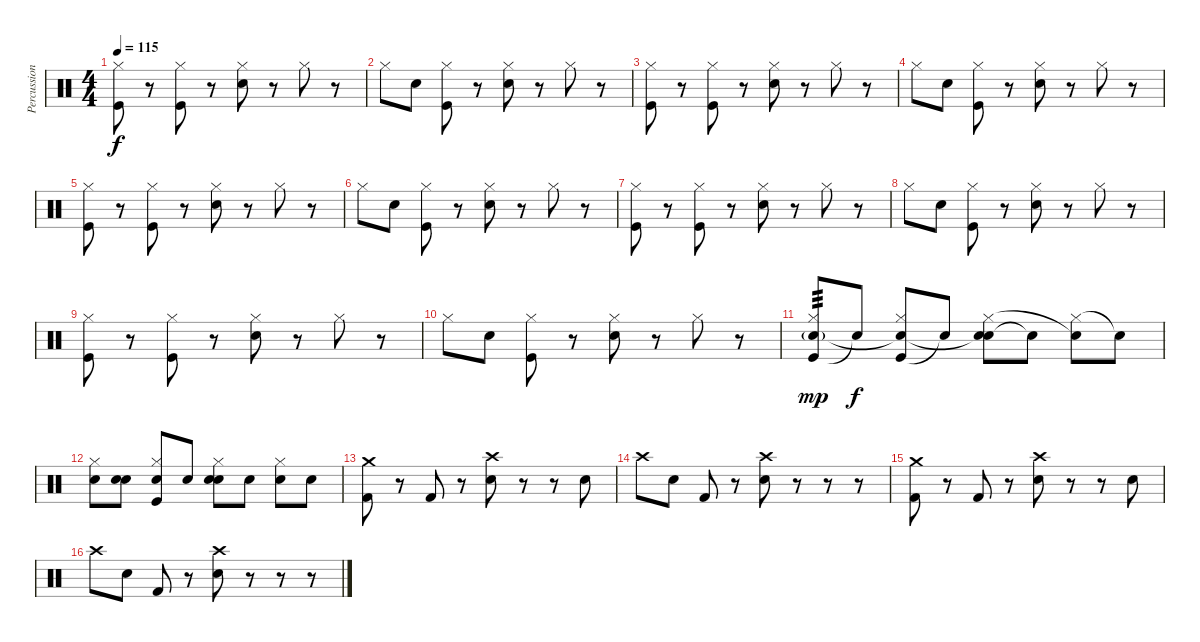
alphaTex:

\track ("Percussion" "Percussion") {instrument percussion}
\staff {score}
\articulation defaults
\ts (4 4)
\tempo 115
\clef neutral
\ks c
("Kick (hit)" "Hi-Hat (closed)").8{dy f} r.8 ("Kick (hit)" "Hi-Hat (closed)").8 r.8 ("Snare (hit) 2" "Hi-Hat (closed)").8 r.8 "Hi-Hat (closed)".8 r.8 |
"Hi-Hat (closed)".8 "Snare (hit) 2".8 ("Kick (hit)" "Hi-Hat (closed)").8 r.8 ("Snare (hit) 2" "Hi-Hat (closed)").8 r.8 "Hi-Hat (closed)".8 r.8 |
("Kick (hit)" "Hi-Hat (closed)").8 r.8 ("Kick (hit)" "Hi-Hat (closed)").8 r.8 ("Snare (hit) 2" "Hi-Hat (closed)").8 r.8 "Hi-Hat (closed)".8 r.8 |
"Hi-Hat (closed)".8 "Snare (hit) 2".8 ("Kick (hit)" "Hi-Hat (closed)").8 r.8 ("Snare (hit) 2" "Hi-Hat (closed)").8 r.8 "Hi-Hat (closed)".8 r.8 |
("Kick (hit)" "Hi-Hat (closed)").8 r.8 ("Kick (hit)" "Hi-Hat (closed)").8 r.8 ("Snare (hit) 2" "Hi-Hat (closed)").8 r.8 "Hi-Hat (closed)".8 r.8 |
"Hi-Hat (closed)".8 "Snare (hit) 2".8 ("Kick (hit)" "Hi-Hat (closed)").8 r.8 ("Snare (hit) 2" "Hi-Hat (closed)").8 r.8 "Hi-Hat (closed)".8 r.8 |
("Kick (hit)" "Hi-Hat (closed)").8 r.8 ("Kick (hit)" "Hi-Hat (closed)").8 r.8 ("Snare (hit) 2" "Hi-Hat (closed)").8 r.8 "Hi-Hat (closed)".8 r.8 |
"Hi-Hat (closed)".8 "Snare (hit) 2".8 ("Kick (hit)" "Hi-Hat (closed)").8 r.8 ("Snare (hit) 2" "Hi-Hat (closed)").8 r.8 "Hi-Hat (closed)".8 r.8 |
("Kick (hit)" "Hi-Hat (closed)").8 r.8 ("Kick (hit)" "Hi-Hat (closed)").8 r.8 ("Snare (hit) 2" "Hi-Hat (closed)").8 r.8 "Hi-Hat (closed)".8 r.8 |
"Hi-Hat (closed)".8 "Snare (hit) 2".8 ("Kick (hit)" "Hi-Hat (closed)").8 r.8 ("Snare (hit) 2" "Hi-Hat (closed)").8 r.8 "Hi-Hat (closed)".8 r.8 |
("Kick (hit)" "Hi-Hat (closed)" "Electric Snare (hit)"{g}).8{tp 3 dy mp} "Snare (hit)"{t}.8{dy f} ("Kick (hit)" "Hi-Hat (closed)" "Snare (hit)"{t}).8 "Snare (hit)"{t}.8 ("Snare (hit) 2" "Hi-Hat (closed)" "Snare (hit)"{t}).8 "Snare (hit)"{t}.8 ("Hi-Hat (closed)" "Snare (hit)"{t}).8 "Snare (hit)"{t}.8 |
("Hi-Hat (closed)" "Electric Snare (hit)").8 ("Snare (hit) 2" "Electric Snare (hit)").8 ("Kick (hit)" "Hi-Hat (closed)" "Electric Snare (hit)").8 "Electric Snare (hit)".8 ("Snare (hit) 2" "Hi-Hat (closed)" "Electric Snare (hit)").8 "Electric Snare (hit)".8 ("Hi-Hat (closed)" "Electric Snare (hit)").8 "Electric Snare (hit)".8 |
("Kick (hit) 2" "Crash medium (hit)").8 r.8 "Kick (hit) 2".8 r.8 ("Electric Snare (hit)" "Crash high (hit)").8 r.8 r.8 "Electric Snare (hit)".8 |
"Crash high (hit)".8 "Electric Snare (hit)".8 "Kick (hit) 2".8 r.8 ("Electric Snare (hit)" "Crash high (hit)").8 r.8 r.8 r.8 |
("Kick (hit) 2" "Crash medium (hit)").8 r.8 "Kick (hit) 2".8 r.8 ("Electric Snare (hit)" "Crash high (hit)").8 r.8 r.8 "Electric Snare (hit)".8 |
"Crash high (hit)".8 "Electric Snare (hit)".8 "Kick (hit) 2".8 r.8 ("Electric Snare (hit)" "Crash high (hit)").8 r.8 r.8 r.8
